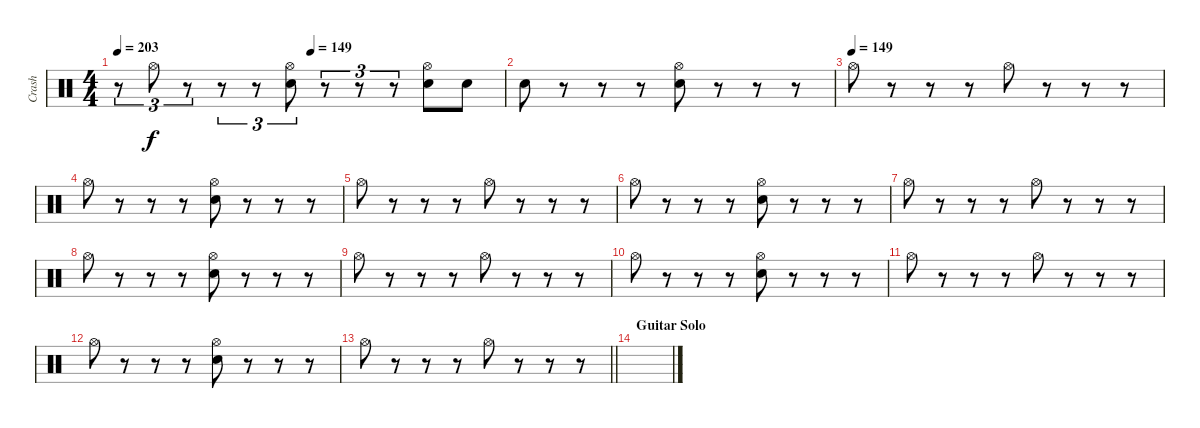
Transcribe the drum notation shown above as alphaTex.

\track ("Crash" "Crash") {instrument percussion}
\staff {score}
\articulation defaults
\ts (4 4)
\tempo 203
\tempo (149 0.5)
\clef neutral
\ks c
r.8{tu (3 2) dy f} "Hi-Hat (open)".8{tu (3 2)} r.8{tu (3 2)} r.8{tu (3 2)} r.8{tu (3 2)} ("Hi-Hat (open)" "Snare (hit) 2").8{tu (3 2)} r.8{tu (3 2)} r.8{tu (3 2)} r.8{tu (3 2)} ("Hi-Hat (open)" "Snare (hit) 2").8 "Snare (hit) 2".8 |
"Snare (hit) 2".8 r.8 r.8 r.8 ("Hi-Hat (open)" "Snare (hit) 2").8 r.8 r.8 r.8 |
\tempo (149)
"Hi-Hat (open)".8 r.8 r.8 r.8 "Hi-Hat (open)".8 r.8 r.8 r.8 |
"Hi-Hat (open)".8 r.8 r.8 r.8 ("Hi-Hat (open)" "Snare (hit) 2").8 r.8 r.8 r.8 |
"Hi-Hat (open)".8 r.8 r.8 r.8 "Hi-Hat (open)".8 r.8 r.8 r.8 |
"Hi-Hat (open)".8 r.8 r.8 r.8 ("Hi-Hat (open)" "Snare (hit) 2").8 r.8 r.8 r.8 |
"Hi-Hat (open)".8 r.8 r.8 r.8 "Hi-Hat (open)".8 r.8 r.8 r.8 |
"Hi-Hat (open)".8 r.8 r.8 r.8 ("Hi-Hat (open)" "Snare (hit) 2").8 r.8 r.8 r.8 |
"Hi-Hat (open)".8 r.8 r.8 r.8 "Hi-Hat (open)".8 r.8 r.8 r.8 |
"Hi-Hat (open)".8 r.8 r.8 r.8 ("Hi-Hat (open)" "Snare (hit) 2").8 r.8 r.8 r.8 |
"Hi-Hat (open)".8 r.8 r.8 r.8 "Hi-Hat (open)".8 r.8 r.8 r.8 |
"Hi-Hat (open)".8 r.8 r.8 r.8 ("Hi-Hat (open)" "Snare (hit) 2").8 r.8 r.8 r.8 |
\barLineRight lightlight "Hi-Hat (open)".8
r.8 r.8 r.8 "Hi-Hat (open)".8 r.8 r.8 r.8 |
\section ("" "Guitar Solo")
